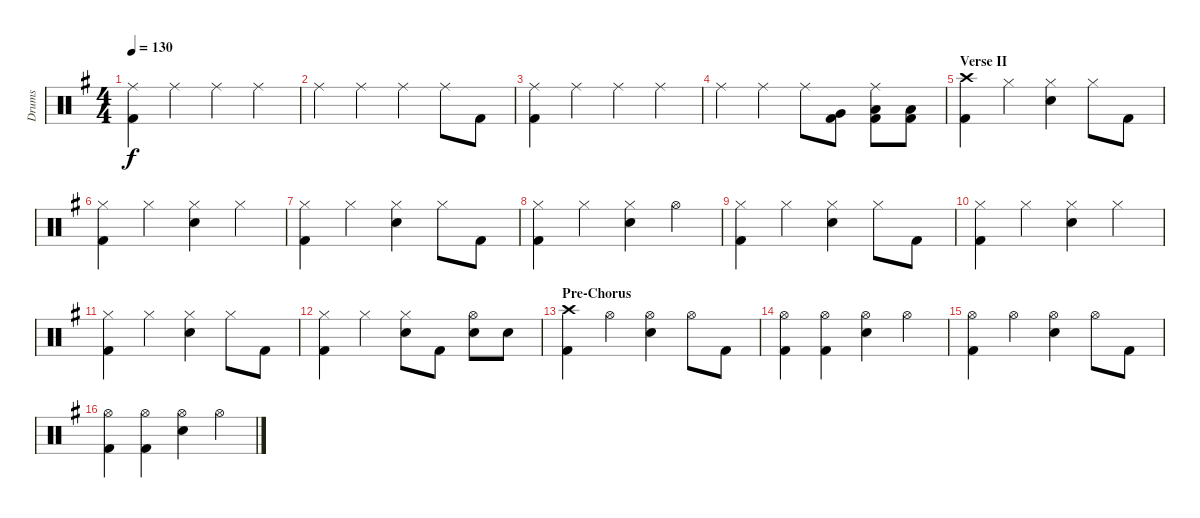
\track ("Drums" "Drums") {instrument percussion}
\staff {score}
\articulation defaults
\ts (4 4)
\tempo 130
\clef neutral
\ks eminor
("Ride (middle)" "Kick (hit) 2").4{dy f} "Ride (middle)".4 "Ride (middle)".4 "Ride (middle)".4 |
"Ride (middle)".4 "Ride (middle)".4 "Ride (middle)".4 "Ride (middle)".8 "Kick (hit) 2".8 |
("Ride (middle)" "Kick (hit) 2").4 "Ride (middle)".4 "Ride (middle)".4 "Ride (middle)".4 |
"Ride (middle)".4 "Ride (middle)".4 "Ride (middle)".8 ("Very Low Tom (hit)" "Kick (hit) 2").8 ("Ride (middle)" "Low Tom (hit)" "Kick (hit) 2").8 ("Low Floor Tom (hit)" "Kick (hit) 2").8 |
\section ("" "Verse II")
("Crash high (hit)" "Kick (hit) 2").4 "Hi-Hat (closed)".4 ("Hi-Hat (closed)" "Snare (hit) 2").4 "Hi-Hat (closed)".8 "Kick (hit) 2".8 |
("Hi-Hat (closed)" "Kick (hit) 2").4 "Hi-Hat (closed)".4 ("Hi-Hat (closed)" "Snare (hit) 2").4 "Hi-Hat (closed)".4 |
("Hi-Hat (closed)" "Kick (hit) 2").4 "Hi-Hat (closed)".4 ("Hi-Hat (closed)" "Snare (hit) 2").4 "Hi-Hat (closed)".8 "Kick (hit) 2".8 |
("Hi-Hat (closed)" "Kick (hit) 2").4 "Hi-Hat (closed)".4 ("Hi-Hat (closed)" "Snare (hit) 2").4 "Hi-Hat (open)".4 |
("Hi-Hat (closed)" "Kick (hit) 2").4 "Hi-Hat (closed)".4 ("Hi-Hat (closed)" "Snare (hit) 2").4 "Hi-Hat (closed)".8 "Kick (hit) 2".8 |
("Hi-Hat (closed)" "Kick (hit) 2").4 "Hi-Hat (closed)".4 ("Hi-Hat (closed)" "Snare (hit) 2").4 "Hi-Hat (closed)".4 |
("Hi-Hat (closed)" "Kick (hit) 2").4 "Hi-Hat (closed)".4 ("Hi-Hat (closed)" "Snare (hit) 2").4 "Hi-Hat (closed)".8 "Kick (hit) 2".8 |
("Hi-Hat (closed)" "Kick (hit) 2").4 "Hi-Hat (closed)".4 ("Hi-Hat (closed)" "Snare (hit) 2").8 "Kick (hit) 2".8 ("Hi-Hat (open)" "Snare (hit) 2").8 "Snare (hit) 2".8 |
\section ("" "Pre-Chorus")
("Crash high (hit)" "Kick (hit) 2").4 "Hi-Hat (open)".4 ("Hi-Hat (open)" "Snare (hit) 2").4 "Hi-Hat (open)".8 "Kick (hit) 2".8 |
("Hi-Hat (open)" "Kick (hit) 2").4 ("Hi-Hat (open)" "Kick (hit) 2").4 ("Hi-Hat (open)" "Snare (hit) 2").4 "Hi-Hat (open)".4 |
("Hi-Hat (open)" "Kick (hit) 2").4 "Hi-Hat (open)".4 ("Hi-Hat (open)" "Snare (hit) 2").4 "Hi-Hat (open)".8 "Kick (hit) 2".8 |
("Hi-Hat (open)" "Kick (hit) 2").4 ("Hi-Hat (open)" "Kick (hit) 2").4 ("Hi-Hat (open)" "Snare (hit) 2").4 "Hi-Hat (open)".4
